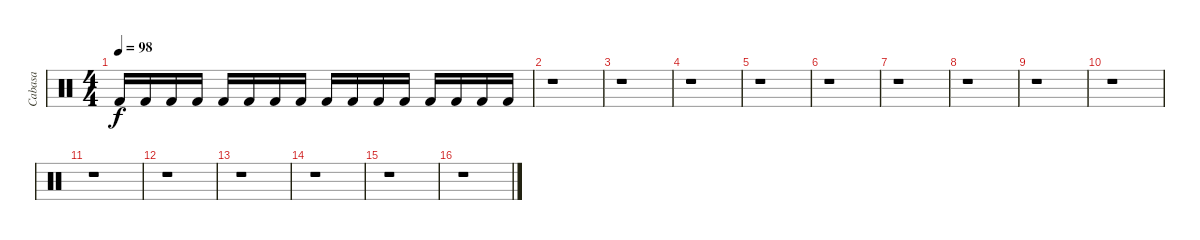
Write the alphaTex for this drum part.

\track ("Cabasa" "Cabasa") {instrument percussion}
\staff {score}
\articulation defaults
\ts (4 4)
\tempo 98
\clef neutral
\ks c "Kick (hit) 2".16{dy f} "Kick (hit) 2".16 "Kick (hit) 2".16 "Kick (hit) 2".16 "Kick (hit) 2".16 "Kick (hit) 2".16 "Kick (hit) 2".16 "Kick (hit) 2".16 "Kick (hit) 2".16 "Kick (hit) 2".16 "Kick (hit) 2".16 "Kick (hit) 2".16 "Kick (hit) 2".16 "Kick (hit) 2".16 "Kick (hit) 2".16 "Kick (hit) 2".16
|
r.1 |
r.1 |
r.1 |
r.1 |
r.1 |
r.1 |
r.1 |
r.1 |
r.1 |
r.1 |
r.1 |
r.1 |
r.1 |
r.1 |
r.1
